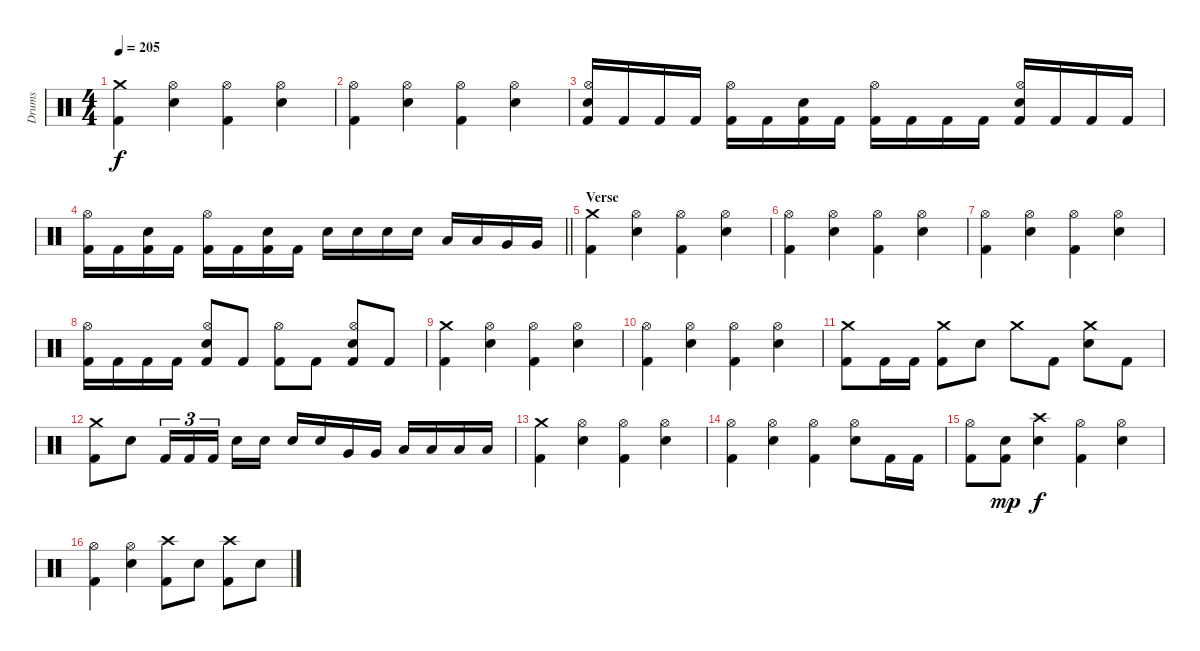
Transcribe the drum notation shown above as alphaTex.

\track ("Drums" "Drums") {instrument percussion}
\staff {score}
\articulation defaults
\ts (4 4)
\tempo 205
\clef neutral
\ks c
("Crash medium (hit)" "Kick (hit) 2").4{dy f} ("Hi-Hat (open)" "Electric Snare (hit)").4 ("Hi-Hat (open)" "Kick (hit) 2").4 ("Hi-Hat (open)" "Electric Snare (hit)").4 |
("Hi-Hat (open)" "Kick (hit) 2").4 ("Hi-Hat (open)" "Electric Snare (hit)").4 ("Hi-Hat (open)" "Kick (hit) 2").4 ("Hi-Hat (open)" "Electric Snare (hit)").4 |
("Hi-Hat (open)" "Electric Snare (hit)" "Kick (hit) 2").16 "Kick (hit) 2".16 "Kick (hit) 2".16 "Kick (hit) 2".16 ("Hi-Hat (open)" "Kick (hit) 2").16 "Kick (hit) 2".16 ("Electric Snare (hit)" "Kick (hit) 2").16 "Kick (hit) 2".16 ("Hi-Hat (open)" "Kick (hit) 2").16 "Kick (hit) 2".16 "Kick (hit) 2".16 "Kick (hit) 2".16 ("Hi-Hat (open)" "Electric Snare (hit)" "Kick (hit) 2").16 "Kick (hit) 2".16 "Kick (hit) 2".16 "Kick (hit) 2".16 |
\barLineRight lightlight
("Hi-Hat (open)" "Kick (hit) 2").16 "Kick (hit) 2".16 ("Electric Snare (hit)" "Kick (hit) 2").16 "Kick (hit) 2".16 ("Hi-Hat (open)" "Kick (hit) 2").16 "Kick (hit) 2".16 ("Electric Snare (hit)" "Kick (hit) 2").16 "Kick (hit) 2".16 "Electric Snare (hit)".16 "Electric Snare (hit)".16 "Electric Snare (hit)".16 "Electric Snare (hit)".16 "Low Tom (hit)".16 "Low Tom (hit)".16 "Very Low Tom (hit)".16 "Very Low Tom (hit)".16 |
\section ("" "Verse")
("Crash medium (hit)" "Kick (hit) 2").4 ("Hi-Hat (open)" "Electric Snare (hit)").4 ("Hi-Hat (open)" "Kick (hit) 2").4 ("Hi-Hat (open)" "Electric Snare (hit)").4 |
("Hi-Hat (open)" "Kick (hit) 2").4 ("Hi-Hat (open)" "Electric Snare (hit)").4 ("Hi-Hat (open)" "Kick (hit) 2").4 ("Hi-Hat (open)" "Electric Snare (hit)").4 |
("Hi-Hat (open)" "Kick (hit) 2").4 ("Hi-Hat (open)" "Electric Snare (hit)").4 ("Hi-Hat (open)" "Kick (hit) 2").4 ("Hi-Hat (open)" "Electric Snare (hit)").4 |
("Hi-Hat (open)" "Kick (hit) 2").16 "Kick (hit) 2".16 "Kick (hit) 2".16 "Kick (hit) 2".16 ("Hi-Hat (open)" "Electric Snare (hit)" "Kick (hit) 2").8 "Kick (hit) 2".8 ("Hi-Hat (open)" "Kick (hit) 2").8 "Kick (hit) 2".8 ("Hi-Hat (open)" "Electric Snare (hit)" "Kick (hit) 2").8 "Kick (hit) 2".8 |
("Crash medium (hit)" "Kick (hit) 2").4 ("Hi-Hat (open)" "Electric Snare (hit)").4 ("Hi-Hat (open)" "Kick (hit) 2").4 ("Hi-Hat (open)" "Electric Snare (hit)").4 |
("Hi-Hat (open)" "Kick (hit) 2").4 ("Hi-Hat (open)" "Electric Snare (hit)").4 ("Hi-Hat (open)" "Kick (hit) 2").4 ("Hi-Hat (open)" "Electric Snare (hit)").4 |
("Crash medium (hit)" "Kick (hit) 2").8 "Kick (hit) 2".16 "Kick (hit) 2".16 ("Crash medium (hit)" "Kick (hit) 2").8 "Electric Snare (hit)".8 "Crash medium (hit)".8 "Kick (hit) 2".8 ("Crash medium (hit)" "Electric Snare (hit)").8 "Kick (hit) 2".8 |
("Crash medium (hit)" "Kick (hit) 2").8 "Electric Snare (hit)".8 "Kick (hit) 2".16{tu (3 2)} "Kick (hit) 2".16{tu (3 2)} "Kick (hit) 2".16{tu (3 2) beam splitsecondary} "Electric Snare (hit)".16 "Electric Snare (hit)".16 "Electric Snare (hit)".16 "Electric Snare (hit)".16 "Very Low Tom (hit)".16 "Very Low Tom (hit)".16 "Low Floor Tom (hit)".16 "Low Floor Tom (hit)".16 "Low Floor Tom (hit)".16 "Low Floor Tom (hit)".16 |
("Crash medium (hit)" "Kick (hit) 2").4 ("Hi-Hat (open)" "Electric Snare (hit)").4 ("Hi-Hat (open)" "Kick (hit) 2").4 ("Hi-Hat (open)" "Electric Snare (hit)").4 |
("Hi-Hat (open)" "Kick (hit) 2").4 ("Hi-Hat (open)" "Electric Snare (hit)").4 ("Hi-Hat (open)" "Kick (hit) 2").4 ("Hi-Hat (open)" "Electric Snare (hit)").8 "Kick (hit) 2".16 "Kick (hit) 2".16 |
("Hi-Hat (open)" "Kick (hit) 2").8 ("Electric Snare (hit)" "Kick (hit) 2").8{dy mp} ("Crash high (hit)" "Electric Snare (hit)").4{dy f} ("Hi-Hat (open)" "Kick (hit) 2").4 ("Hi-Hat (open)" "Electric Snare (hit)").4 |
("Hi-Hat (open)" "Kick (hit) 2").4 ("Hi-Hat (open)" "Electric Snare (hit)").4 ("Crash high (hit)" "Kick (hit) 2").8 "Electric Snare (hit)".8 ("Crash high (hit)" "Kick (hit) 2").8 "Electric Snare (hit)".8
